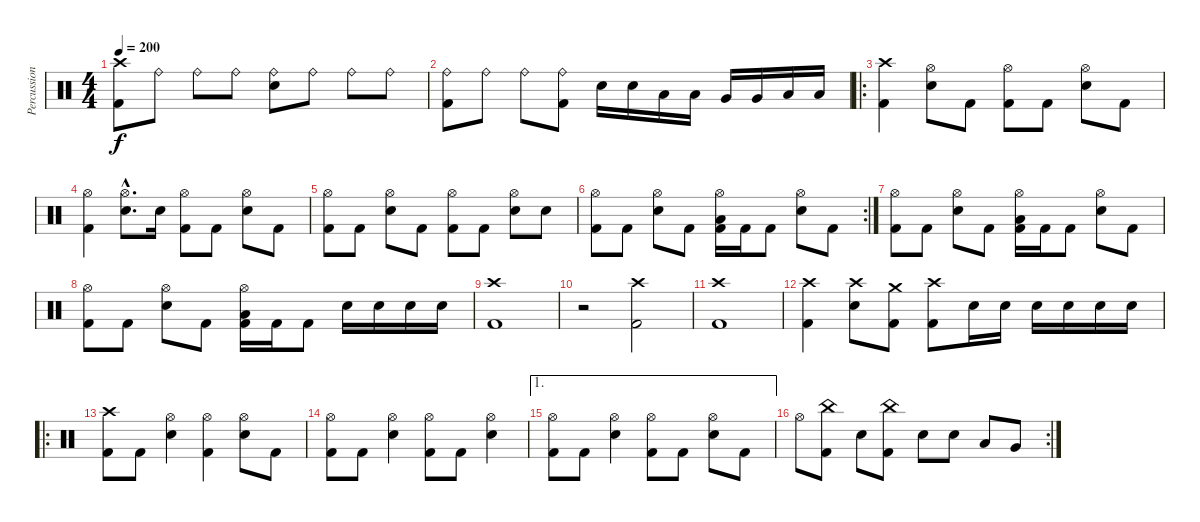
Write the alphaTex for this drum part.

\track ("Percussions" "Percussion") {instrument percussion}
\staff {score}
\articulation defaults
\ts (4 4)
\tempo 200
\clef neutral
\ks c
("Crash high (hit)" "Kick (hit) 2").8{dy f} "Ride (bell)".8 "Ride (bell)".8 "Ride (bell)".8 ("Ride (bell)" "Snare (hit) 2").8 "Ride (bell)".8 "Ride (bell)".8 "Ride (bell)".8 |
("Ride (bell)" "Kick (hit) 2").8 "Ride (bell)".8 "Ride (bell)".8 ("Ride (bell)" "Kick (hit) 2").8 "Snare (hit) 2".16 "Snare (hit) 2".16 "Low Tom (hit)".16 "Low Tom (hit)".16 "Very Low Tom (hit)".16 "Very Low Tom (hit)".16 "Low Floor Tom (hit)".16 "Low Floor Tom (hit)".16 |
\ro
("Crash high (hit)" "Kick (hit) 2").4 ("Hi-Hat (open)" "Snare (hit) 2").8 "Kick (hit) 2".8 ("Hi-Hat (open)" "Kick (hit) 2").8 "Kick (hit) 2".8 ("Hi-Hat (open)" "Snare (hit) 2").8 "Kick (hit) 2".8 |
("Hi-Hat (open)" "Kick (hit) 2").4 ("Hi-Hat (open)"{hac} "Snare (hit) 2"{hac}).8{d} "Snare (hit) 2".16 ("Hi-Hat (open)" "Kick (hit) 2").8 "Kick (hit) 2".8 ("Hi-Hat (open)" "Snare (hit) 2").8 "Kick (hit) 2".8 |
("Hi-Hat (open)" "Kick (hit) 2").8 "Kick (hit) 2".8 ("Hi-Hat (open)" "Snare (hit) 2").8 "Kick (hit) 2".8 ("Hi-Hat (open)" "Kick (hit) 2").8 "Kick (hit) 2".8 ("Hi-Hat (open)" "Snare (hit) 2").8 "Snare (hit) 2".8 |
\rc 2
("Hi-Hat (open)" "Kick (hit) 2").8 "Kick (hit) 2".8 ("Hi-Hat (open)" "Snare (hit) 2").8 "Kick (hit) 2".8 ("Hi-Hat (open)" "Low Tom (hit)" "Kick (hit) 2").16 "Kick (hit) 2".16 "Kick (hit) 2".8 ("Hi-Hat (open)" "Snare (hit) 2").8 "Kick (hit) 2".8 |
("Hi-Hat (open)" "Kick (hit) 2").8 "Kick (hit) 2".8 ("Hi-Hat (open)" "Snare (hit) 2").8 "Kick (hit) 2".8 ("Hi-Hat (open)" "Low Tom (hit)" "Kick (hit) 2").16 "Kick (hit) 2".16 "Kick (hit) 2".8 ("Hi-Hat (open)" "Snare (hit) 2").8 "Kick (hit) 2".8 |
("Hi-Hat (open)" "Kick (hit) 2").8 "Kick (hit) 2".8 ("Hi-Hat (open)" "Snare (hit) 2").8 "Kick (hit) 2".8 ("Hi-Hat (open)" "Low Tom (hit)" "Kick (hit) 2").16 "Kick (hit) 2".16 "Kick (hit) 2".8 "Snare (hit) 2".16 "Snare (hit) 2".16 "Snare (hit) 2".16 "Snare (hit) 2".16 |
("Crash high (hit)" "Kick (hit) 2").1 |
r.2 ("Crash high (hit)" "Kick (hit) 2").2 |
("Crash high (hit)" "Kick (hit) 2").1 |
("Crash high (hit)" "Kick (hit) 2").4 ("Crash high (hit)" "Snare (hit) 2").8 ("Crash medium (hit)" "Kick (hit) 2").8 ("Crash high (hit)" "Kick (hit) 2").8 "Snare (hit) 2".16 "Snare (hit) 2".16 "Snare (hit) 2".16 "Snare (hit) 2".16 "Snare (hit) 2".16 "Snare (hit) 2".16 |
\ro
("Crash high (hit)" "Kick (hit) 2").8 "Kick (hit) 2".8 ("Hi-Hat (open)" "Snare (hit) 2").4 ("Hi-Hat (open)" "Kick (hit) 2").4 ("Hi-Hat (open)" "Snare (hit) 2").8 "Kick (hit) 2".8 |
("Hi-Hat (open)" "Kick (hit) 2").8 "Kick (hit) 2".8 ("Hi-Hat (open)" "Snare (hit) 2").4 ("Hi-Hat (open)" "Kick (hit) 2").8 "Kick (hit) 2".8 ("Hi-Hat (open)" "Snare (hit) 2").4 |
\ae 1
("Hi-Hat (open)" "Kick (hit) 2").8 "Kick (hit) 2".8 ("Hi-Hat (open)" "Snare (hit) 2").4 ("Hi-Hat (open)" "Kick (hit) 2").8 "Kick (hit) 2".8 ("Hi-Hat (open)" "Snare (hit) 2").8 "Kick (hit) 2".8 |
\rc 2 "Hi-Hat (open)".8
("China (hit)" "Kick (hit) 2").8 "Snare (hit) 2".8 ("China (hit)" "Kick (hit) 2").8 "Snare (hit) 2".8 "Snare (hit) 2".8 "Low Tom (hit)".8 "Very Low Tom (hit)".8
